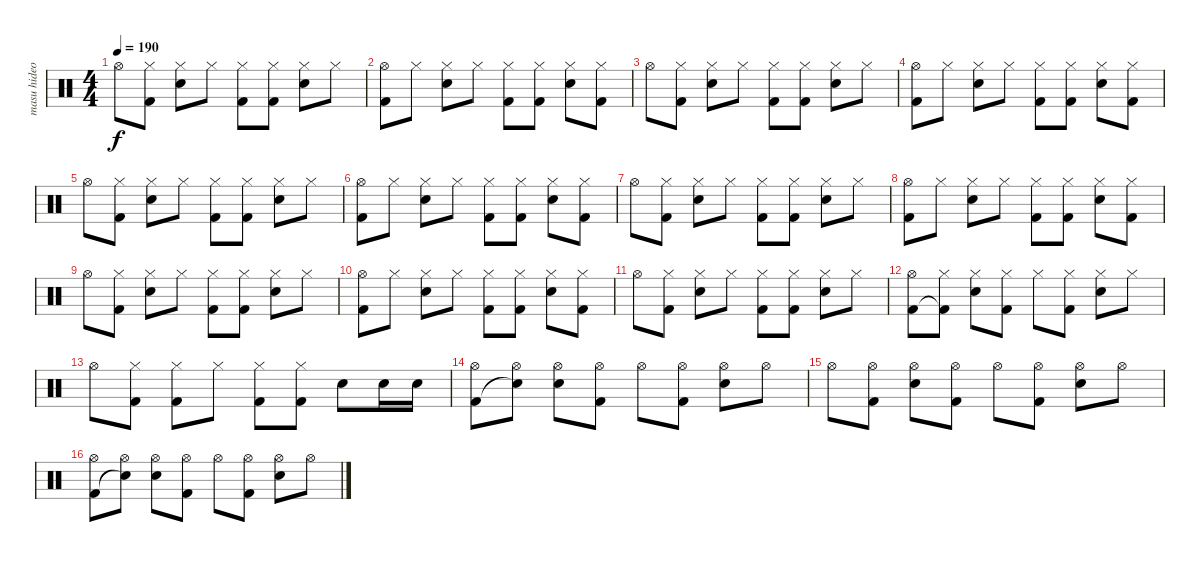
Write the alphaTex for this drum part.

\track ("masu hideo" "masu hideo") {instrument percussion}
\staff {score}
\articulation defaults
\ts (4 4)
\tempo 190
\clef neutral
\ks c "Hi-Hat (open)".8{dy f}
("Hi-Hat (closed)" "Kick (hit) 2").8 ("Hi-Hat (closed)" "Snare (hit) 2").8 "Hi-Hat (closed)".8 ("Hi-Hat (closed)" "Kick (hit) 2").8 ("Hi-Hat (closed)" "Kick (hit) 2").8 ("Hi-Hat (closed)" "Snare (hit) 2").8 "Hi-Hat (closed)".8 |
("Hi-Hat (open)" "Kick (hit) 2").8 "Hi-Hat (closed)".8 ("Hi-Hat (closed)" "Snare (hit) 2").8 "Hi-Hat (closed)".8 ("Hi-Hat (closed)" "Kick (hit) 2").8 ("Hi-Hat (closed)" "Kick (hit) 2").8 ("Hi-Hat (closed)" "Snare (hit) 2").8 ("Hi-Hat (closed)" "Kick (hit) 2").8 |
"Hi-Hat (open)".8 ("Hi-Hat (closed)" "Kick (hit) 2").8 ("Hi-Hat (closed)" "Snare (hit) 2").8 "Hi-Hat (closed)".8 ("Hi-Hat (closed)" "Kick (hit) 2").8 ("Hi-Hat (closed)" "Kick (hit) 2").8 ("Hi-Hat (closed)" "Snare (hit) 2").8 "Hi-Hat (closed)".8 |
("Hi-Hat (open)" "Kick (hit) 2").8 "Hi-Hat (closed)".8 ("Hi-Hat (closed)" "Snare (hit) 2").8 "Hi-Hat (closed)".8 ("Hi-Hat (closed)" "Kick (hit) 2").8 ("Hi-Hat (closed)" "Kick (hit) 2").8 ("Hi-Hat (closed)" "Snare (hit) 2").8 ("Hi-Hat (closed)" "Kick (hit) 2").8 |
"Hi-Hat (open)".8 ("Hi-Hat (closed)" "Kick (hit) 2").8 ("Hi-Hat (closed)" "Snare (hit) 2").8 "Hi-Hat (closed)".8 ("Hi-Hat (closed)" "Kick (hit) 2").8 ("Hi-Hat (closed)" "Kick (hit) 2").8 ("Hi-Hat (closed)" "Snare (hit) 2").8 "Hi-Hat (closed)".8 |
("Hi-Hat (open)" "Kick (hit) 2").8 "Hi-Hat (closed)".8 ("Hi-Hat (closed)" "Snare (hit) 2").8 "Hi-Hat (closed)".8 ("Hi-Hat (closed)" "Kick (hit) 2").8 ("Hi-Hat (closed)" "Kick (hit) 2").8 ("Hi-Hat (closed)" "Snare (hit) 2").8 ("Hi-Hat (closed)" "Kick (hit) 2").8 |
"Hi-Hat (open)".8 ("Hi-Hat (closed)" "Kick (hit) 2").8 ("Hi-Hat (closed)" "Snare (hit) 2").8 "Hi-Hat (closed)".8 ("Hi-Hat (closed)" "Kick (hit) 2").8 ("Hi-Hat (closed)" "Kick (hit) 2").8 ("Hi-Hat (closed)" "Snare (hit) 2").8 "Hi-Hat (closed)".8 |
("Hi-Hat (open)" "Kick (hit) 2").8 "Hi-Hat (closed)".8 ("Hi-Hat (closed)" "Snare (hit) 2").8 "Hi-Hat (closed)".8 ("Hi-Hat (closed)" "Kick (hit) 2").8 ("Hi-Hat (closed)" "Kick (hit) 2").8 ("Hi-Hat (closed)" "Snare (hit) 2").8 ("Hi-Hat (closed)" "Kick (hit) 2").8 |
"Hi-Hat (open)".8 ("Hi-Hat (closed)" "Kick (hit) 2").8 ("Hi-Hat (closed)" "Snare (hit) 2").8 "Hi-Hat (closed)".8 ("Hi-Hat (closed)" "Kick (hit) 2").8 ("Hi-Hat (closed)" "Kick (hit) 2").8 ("Hi-Hat (closed)" "Snare (hit) 2").8 "Hi-Hat (closed)".8 |
("Hi-Hat (open)" "Kick (hit) 2").8 "Hi-Hat (closed)".8 ("Hi-Hat (closed)" "Snare (hit) 2").8 "Hi-Hat (closed)".8 ("Hi-Hat (closed)" "Kick (hit) 2").8 ("Hi-Hat (closed)" "Kick (hit) 2").8 ("Hi-Hat (closed)" "Snare (hit) 2").8 ("Hi-Hat (closed)" "Kick (hit) 2").8 |
"Hi-Hat (open)".8 ("Hi-Hat (closed)" "Kick (hit) 2").8 ("Hi-Hat (closed)" "Snare (hit) 2").8 "Hi-Hat (closed)".8 ("Hi-Hat (closed)" "Kick (hit) 2").8 ("Hi-Hat (closed)" "Kick (hit) 2").8 ("Hi-Hat (closed)" "Snare (hit) 2").8 "Hi-Hat (closed)".8 |
("Hi-Hat (open)" "Kick (hit) 2").8 ("Hi-Hat (closed)" "Kick (hit) 2"{t}).8 ("Hi-Hat (closed)" "Snare (hit) 2").8 ("Hi-Hat (closed)" "Kick (hit) 2").8 "Hi-Hat (closed)".8 ("Hi-Hat (closed)" "Kick (hit) 2").8 ("Hi-Hat (closed)" "Snare (hit) 2").8 "Hi-Hat (closed)".8 |
"Hi-Hat (open)".8 ("Hi-Hat (closed)" "Kick (hit) 2").8 ("Hi-Hat (closed)" "Kick (hit) 2").8 "Hi-Hat (closed)".8 ("Hi-Hat (closed)" "Kick (hit) 2").8 ("Hi-Hat (closed)" "Kick (hit) 2").8 "Snare (hit) 2".8 "Snare (hit) 2".16 "Snare (hit) 2".16 |
("Hi-Hat (open)" "Kick (hit) 2").8 ("Hi-Hat (open)" "Snare (hit)"{t}).8 ("Hi-Hat (open)" "Snare (hit) 2").8 ("Hi-Hat (open)" "Kick (hit) 2").8 "Hi-Hat (open)".8 ("Hi-Hat (open)" "Kick (hit) 2").8 ("Hi-Hat (open)" "Snare (hit) 2").8 "Hi-Hat (open)".8 |
"Hi-Hat (open)".8 ("Hi-Hat (open)" "Kick (hit) 2").8 ("Hi-Hat (open)" "Snare (hit) 2").8 ("Hi-Hat (open)" "Kick (hit) 2").8 "Hi-Hat (open)".8 ("Hi-Hat (open)" "Kick (hit) 2").8 ("Hi-Hat (open)" "Snare (hit) 2").8 "Hi-Hat (open)".8 |
("Hi-Hat (open)" "Kick (hit) 2").8 ("Hi-Hat (open)" "Snare (hit)"{t}).8 ("Hi-Hat (open)" "Snare (hit) 2").8 ("Hi-Hat (open)" "Kick (hit) 2").8 "Hi-Hat (open)".8 ("Hi-Hat (open)" "Kick (hit) 2").8 ("Hi-Hat (open)" "Snare (hit) 2").8 "Hi-Hat (open)".8
